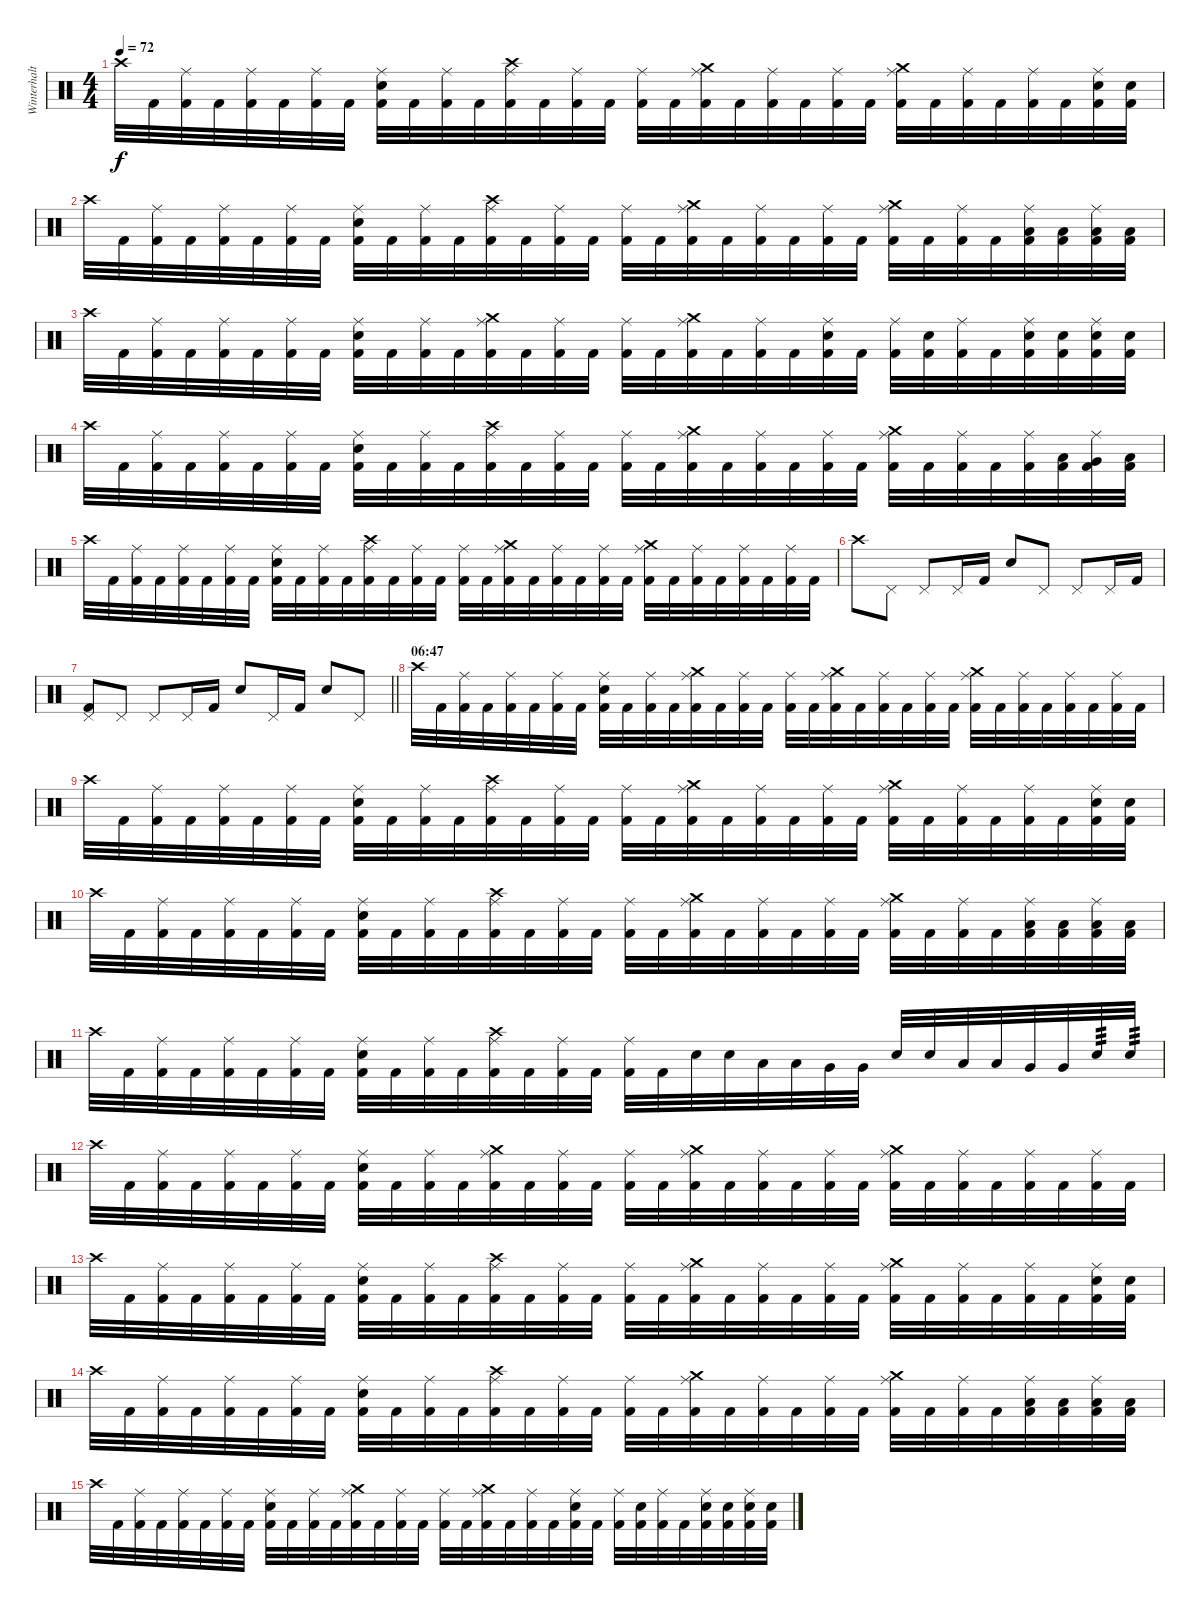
\track ("Winterhalten" "Winterhalt") {instrument percussion}
\staff {score}
\articulation defaults
\ts (4 4)
\tempo 72
\clef neutral
\ks c "Crash high (hit)".32{dy f} "Kick (hit) 2".32
("Ride (middle)" "Kick (hit) 2").32 "Kick (hit) 2".32 ("Ride (middle)" "Kick (hit) 2").32 "Kick (hit) 2".32 ("Ride (middle)" "Kick (hit) 2").32 "Kick (hit) 2".32 ("Ride (middle)" "Electric Snare (hit)" "Kick (hit) 2").32 "Kick (hit) 2".32 ("Ride (middle)" "Kick (hit) 2").32 "Kick (hit) 2".32 ("Crash high (hit)" "Ride (middle)" "Kick (hit) 2").32 "Kick (hit) 2".32 ("Ride (middle)" "Kick (hit) 2").32 "Kick (hit) 2".32 ("Ride (middle)" "Kick (hit) 2").32 "Kick (hit) 2".32 ("Crash medium (hit)" "Ride (middle)" "Kick (hit) 2").32 "Kick (hit) 2".32 ("Ride (middle)" "Kick (hit) 2").32 "Kick (hit) 2".32 ("Ride (middle)" "Kick (hit) 2").32 "Kick (hit) 2".32 ("Crash medium (hit)" "Ride (middle)" "Kick (hit) 2").32 "Kick (hit) 2".32 ("Ride (middle)" "Kick (hit) 2").32 "Kick (hit) 2".32 ("Ride (middle)" "Kick (hit) 2").32 "Kick (hit) 2".32 ("Ride (middle)" "Electric Snare (hit)" "Kick (hit) 2").32 ("Electric Snare (hit)" "Kick (hit) 2").32 |
"Crash high (hit)".32 "Kick (hit) 2".32 ("Ride (middle)" "Kick (hit) 2").32 "Kick (hit) 2".32 ("Ride (middle)" "Kick (hit) 2").32 "Kick (hit) 2".32 ("Ride (middle)" "Kick (hit) 2").32 "Kick (hit) 2".32 ("Ride (middle)" "Electric Snare (hit)" "Kick (hit) 2").32 "Kick (hit) 2".32 ("Ride (middle)" "Kick (hit) 2").32 "Kick (hit) 2".32 ("Crash high (hit)" "Ride (middle)" "Kick (hit) 2").32 "Kick (hit) 2".32 ("Ride (middle)" "Kick (hit) 2").32 "Kick (hit) 2".32 ("Ride (middle)" "Kick (hit) 2").32 "Kick (hit) 2".32 ("Crash medium (hit)" "Ride (middle)" "Kick (hit) 2").32 "Kick (hit) 2".32 ("Ride (middle)" "Kick (hit) 2").32 "Kick (hit) 2".32 ("Ride (middle)" "Kick (hit) 2").32 "Kick (hit) 2".32 ("Crash medium (hit)" "Ride (middle)" "Kick (hit) 2").32 "Kick (hit) 2".32 ("Ride (middle)" "Kick (hit) 2").32 "Kick (hit) 2".32 ("Ride (middle)" "Low Tom (hit)" "Kick (hit) 2").32 ("Low Tom (hit)" "Kick (hit) 2").32 ("Ride (middle)" "Low Tom (hit)" "Kick (hit) 2").32 ("Low Tom (hit)" "Kick (hit) 2").32 |
"Crash high (hit)".32 "Kick (hit) 2".32 ("Ride (middle)" "Kick (hit) 2").32 "Kick (hit) 2".32 ("Ride (middle)" "Kick (hit) 2").32 "Kick (hit) 2".32 ("Ride (middle)" "Kick (hit) 2").32 "Kick (hit) 2".32 ("Ride (middle)" "Electric Snare (hit)" "Kick (hit) 2").32 "Kick (hit) 2".32 ("Ride (middle)" "Kick (hit) 2").32 "Kick (hit) 2".32 ("Crash medium (hit)" "Ride (middle)" "Kick (hit) 2").32 "Kick (hit) 2".32 ("Ride (middle)" "Kick (hit) 2").32 "Kick (hit) 2".32 ("Ride (middle)" "Kick (hit) 2").32 "Kick (hit) 2".32 ("Crash medium (hit)" "Ride (middle)" "Kick (hit) 2").32 "Kick (hit) 2".32 ("Ride (middle)" "Kick (hit) 2").32 "Kick (hit) 2".32 ("Ride (middle)" "Electric Snare (hit)" "Kick (hit) 2").32 "Kick (hit) 2".32 ("Ride (middle)" "Kick (hit) 2").32 ("Electric Snare (hit)" "Kick (hit) 2").32 ("Ride (middle)" "Kick (hit) 2").32 "Kick (hit) 2".32 ("Ride (middle)" "Electric Snare (hit)" "Kick (hit) 2").32 ("Electric Snare (hit)" "Kick (hit) 2").32 ("Ride (middle)" "Electric Snare (hit)" "Kick (hit) 2").32 ("Electric Snare (hit)" "Kick (hit) 2").32 |
"Crash high (hit)".32 "Kick (hit) 2".32 ("Ride (middle)" "Kick (hit) 2").32 "Kick (hit) 2".32 ("Ride (middle)" "Kick (hit) 2").32 "Kick (hit) 2".32 ("Ride (middle)" "Kick (hit) 2").32 "Kick (hit) 2".32 ("Ride (middle)" "Electric Snare (hit)" "Kick (hit) 2").32 "Kick (hit) 2".32 ("Ride (middle)" "Kick (hit) 2").32 "Kick (hit) 2".32 ("Crash high (hit)" "Ride (middle)" "Kick (hit) 2").32 "Kick (hit) 2".32 ("Ride (middle)" "Kick (hit) 2").32 "Kick (hit) 2".32 ("Ride (middle)" "Kick (hit) 2").32 "Kick (hit) 2".32 ("Crash medium (hit)" "Ride (middle)" "Kick (hit) 2").32 "Kick (hit) 2".32 ("Ride (middle)" "Kick (hit) 2").32 "Kick (hit) 2".32 ("Ride (middle)" "Kick (hit) 2").32 "Kick (hit) 2".32 ("Crash medium (hit)" "Ride (middle)" "Kick (hit) 2").32 "Kick (hit) 2".32 ("Ride (middle)" "Kick (hit) 2").32 "Kick (hit) 2".32 ("Ride (middle)" "Kick (hit) 2").32 ("Low Tom (hit)" "Kick (hit) 2").32 ("Ride (middle)" "Very Low Tom (hit)" "Kick (hit) 2").32 ("Low Floor Tom (hit)" "Kick (hit) 2").32 |
"Crash high (hit)".32 "Kick (hit) 2".32 ("Ride (middle)" "Kick (hit) 2").32 "Kick (hit) 2".32 ("Ride (middle)" "Kick (hit) 2").32 "Kick (hit) 2".32 ("Ride (middle)" "Kick (hit) 2").32 "Kick (hit) 2".32 ("Ride (middle)" "Electric Snare (hit)" "Kick (hit) 2").32 "Kick (hit) 2".32 ("Ride (middle)" "Kick (hit) 2").32 "Kick (hit) 2".32 ("Crash high (hit)" "Ride (middle)" "Kick (hit) 2").32 "Kick (hit) 2".32 ("Ride (middle)" "Kick (hit) 2").32 "Kick (hit) 2".32 ("Ride (middle)" "Kick (hit) 2").32 "Kick (hit) 2".32 ("Crash medium (hit)" "Ride (middle)" "Kick (hit) 2").32 "Kick (hit) 2".32 ("Ride (middle)" "Kick (hit) 2").32 "Kick (hit) 2".32 ("Ride (middle)" "Kick (hit) 2").32 "Kick (hit) 2".32 ("Crash medium (hit)" "Ride (middle)" "Kick (hit) 2").32 "Kick (hit) 2".32 ("Ride (middle)" "Kick (hit) 2").32 "Kick (hit) 2".32 ("Ride (middle)" "Kick (hit) 2").32 "Kick (hit) 2".32 ("Ride (middle)" "Kick (hit) 2").32 "Kick (hit) 2".32 |
"Crash high (hit)".8 "Pedal Hi-Hat (hit)".8 "Pedal Hi-Hat (hit)".8 "Pedal Hi-Hat (hit)".16 "Kick (hit) 2".16 "Electric Snare (hit)".8 "Pedal Hi-Hat (hit)".8 "Pedal Hi-Hat (hit)".8 "Pedal Hi-Hat (hit)".16 "Kick (hit) 2".16 |
\barLineRight lightlight
("Pedal Hi-Hat (hit)" "Kick (hit) 2").8 "Pedal Hi-Hat (hit)".8 "Pedal Hi-Hat (hit)".8 "Pedal Hi-Hat (hit)".16 "Kick (hit) 2".16 "Electric Snare (hit)".8 "Pedal Hi-Hat (hit)".16 "Kick (hit) 2".16 "Electric Snare (hit)".8 "Pedal Hi-Hat (hit)".8 |
\section ("" "06:47")
"Crash high (hit)".32 "Kick (hit) 2".32 ("Ride (middle)" "Kick (hit) 2").32 "Kick (hit) 2".32 ("Ride (middle)" "Kick (hit) 2").32 "Kick (hit) 2".32 ("Ride (middle)" "Kick (hit) 2").32 "Kick (hit) 2".32 ("Ride (middle)" "Electric Snare (hit)" "Kick (hit) 2").32 "Kick (hit) 2".32 ("Ride (middle)" "Kick (hit) 2").32 "Kick (hit) 2".32 ("Crash medium (hit)" "Ride (middle)" "Kick (hit) 2").32 "Kick (hit) 2".32 ("Ride (middle)" "Kick (hit) 2").32 "Kick (hit) 2".32 ("Ride (middle)" "Kick (hit) 2").32 "Kick (hit) 2".32 ("Crash medium (hit)" "Ride (middle)" "Kick (hit) 2").32 "Kick (hit) 2".32 ("Ride (middle)" "Kick (hit) 2").32 "Kick (hit) 2".32 ("Ride (middle)" "Kick (hit) 2").32 "Kick (hit) 2".32 ("Crash medium (hit)" "Ride (middle)" "Kick (hit) 2").32 "Kick (hit) 2".32 ("Ride (middle)" "Kick (hit) 2").32 "Kick (hit) 2".32 ("Ride (middle)" "Kick (hit) 2").32 "Kick (hit) 2".32 ("Ride (middle)" "Kick (hit) 2").32 "Kick (hit) 2".32 |
"Crash high (hit)".32 "Kick (hit) 2".32 ("Ride (middle)" "Kick (hit) 2").32 "Kick (hit) 2".32 ("Ride (middle)" "Kick (hit) 2").32 "Kick (hit) 2".32 ("Ride (middle)" "Kick (hit) 2").32 "Kick (hit) 2".32 ("Ride (middle)" "Electric Snare (hit)" "Kick (hit) 2").32 "Kick (hit) 2".32 ("Ride (middle)" "Kick (hit) 2").32 "Kick (hit) 2".32 ("Crash high (hit)" "Ride (middle)" "Kick (hit) 2").32 "Kick (hit) 2".32 ("Ride (middle)" "Kick (hit) 2").32 "Kick (hit) 2".32 ("Ride (middle)" "Kick (hit) 2").32 "Kick (hit) 2".32 ("Crash medium (hit)" "Ride (middle)" "Kick (hit) 2").32 "Kick (hit) 2".32 ("Ride (middle)" "Kick (hit) 2").32 "Kick (hit) 2".32 ("Ride (middle)" "Kick (hit) 2").32 "Kick (hit) 2".32 ("Crash medium (hit)" "Ride (middle)" "Kick (hit) 2").32 "Kick (hit) 2".32 ("Ride (middle)" "Kick (hit) 2").32 "Kick (hit) 2".32 ("Ride (middle)" "Kick (hit) 2").32 "Kick (hit) 2".32 ("Ride (middle)" "Electric Snare (hit)" "Kick (hit) 2").32 ("Electric Snare (hit)" "Kick (hit) 2").32 |
"Crash high (hit)".32 "Kick (hit) 2".32 ("Ride (middle)" "Kick (hit) 2").32 "Kick (hit) 2".32 ("Ride (middle)" "Kick (hit) 2").32 "Kick (hit) 2".32 ("Ride (middle)" "Kick (hit) 2").32 "Kick (hit) 2".32 ("Ride (middle)" "Electric Snare (hit)" "Kick (hit) 2").32 "Kick (hit) 2".32 ("Ride (middle)" "Kick (hit) 2").32 "Kick (hit) 2".32 ("Crash high (hit)" "Ride (middle)" "Kick (hit) 2").32 "Kick (hit) 2".32 ("Ride (middle)" "Kick (hit) 2").32 "Kick (hit) 2".32 ("Ride (middle)" "Kick (hit) 2").32 "Kick (hit) 2".32 ("Crash medium (hit)" "Ride (middle)" "Kick (hit) 2").32 "Kick (hit) 2".32 ("Ride (middle)" "Kick (hit) 2").32 "Kick (hit) 2".32 ("Ride (middle)" "Kick (hit) 2").32 "Kick (hit) 2".32 ("Crash medium (hit)" "Ride (middle)" "Kick (hit) 2").32 "Kick (hit) 2".32 ("Ride (middle)" "Kick (hit) 2").32 "Kick (hit) 2".32 ("Ride (middle)" "Low Tom (hit)" "Kick (hit) 2").32 ("Low Tom (hit)" "Kick (hit) 2").32 ("Ride (middle)" "Low Tom (hit)" "Kick (hit) 2").32 ("Low Tom (hit)" "Kick (hit) 2").32 |
"Crash high (hit)".32 "Kick (hit) 2".32 ("Ride (middle)" "Kick (hit) 2").32 "Kick (hit) 2".32 ("Ride (middle)" "Kick (hit) 2").32 "Kick (hit) 2".32 ("Ride (middle)" "Kick (hit) 2").32 "Kick (hit) 2".32 ("Ride (middle)" "Electric Snare (hit)" "Kick (hit) 2").32 "Kick (hit) 2".32 ("Ride (middle)" "Kick (hit) 2").32 "Kick (hit) 2".32 ("Crash high (hit)" "Ride (middle)" "Kick (hit) 2").32 "Kick (hit) 2".32 ("Ride (middle)" "Kick (hit) 2").32 "Kick (hit) 2".32 ("Ride (middle)" "Kick (hit) 2").32 "Kick (hit) 2".32 "Electric Snare (hit)".32 "Electric Snare (hit)".32 "Low Tom (hit)".32 "Low Tom (hit)".32 "Very Low Tom (hit)".32 "Very Low Tom (hit)".32 "Electric Snare (hit)".32 "Electric Snare (hit)".32 "Low Tom (hit)".32 "Low Tom (hit)".32 "Very Low Tom (hit)".32 "Very Low Tom (hit)".32 "Electric Snare (hit)".32{tp 3} "Electric Snare (hit)".32{tp 3} |
"Crash high (hit)".32 "Kick (hit) 2".32 ("Ride (middle)" "Kick (hit) 2").32 "Kick (hit) 2".32 ("Ride (middle)" "Kick (hit) 2").32 "Kick (hit) 2".32 ("Ride (middle)" "Kick (hit) 2").32 "Kick (hit) 2".32 ("Ride (middle)" "Electric Snare (hit)" "Kick (hit) 2").32 "Kick (hit) 2".32 ("Ride (middle)" "Kick (hit) 2").32 "Kick (hit) 2".32 ("Crash medium (hit)" "Ride (middle)" "Kick (hit) 2").32 "Kick (hit) 2".32 ("Ride (middle)" "Kick (hit) 2").32 "Kick (hit) 2".32 ("Ride (middle)" "Kick (hit) 2").32 "Kick (hit) 2".32 ("Crash medium (hit)" "Ride (middle)" "Kick (hit) 2").32 "Kick (hit) 2".32 ("Ride (middle)" "Kick (hit) 2").32 "Kick (hit) 2".32 ("Ride (middle)" "Kick (hit) 2").32 "Kick (hit) 2".32 ("Crash medium (hit)" "Ride (middle)" "Kick (hit) 2").32 "Kick (hit) 2".32 ("Ride (middle)" "Kick (hit) 2").32 "Kick (hit) 2".32 ("Ride (middle)" "Kick (hit) 2").32 "Kick (hit) 2".32 ("Ride (middle)" "Kick (hit) 2").32 "Kick (hit) 2".32 |
"Crash high (hit)".32 "Kick (hit) 2".32 ("Ride (middle)" "Kick (hit) 2").32 "Kick (hit) 2".32 ("Ride (middle)" "Kick (hit) 2").32 "Kick (hit) 2".32 ("Ride (middle)" "Kick (hit) 2").32 "Kick (hit) 2".32 ("Ride (middle)" "Electric Snare (hit)" "Kick (hit) 2").32 "Kick (hit) 2".32 ("Ride (middle)" "Kick (hit) 2").32 "Kick (hit) 2".32 ("Crash high (hit)" "Ride (middle)" "Kick (hit) 2").32 "Kick (hit) 2".32 ("Ride (middle)" "Kick (hit) 2").32 "Kick (hit) 2".32 ("Ride (middle)" "Kick (hit) 2").32 "Kick (hit) 2".32 ("Crash medium (hit)" "Ride (middle)" "Kick (hit) 2").32 "Kick (hit) 2".32 ("Ride (middle)" "Kick (hit) 2").32 "Kick (hit) 2".32 ("Ride (middle)" "Kick (hit) 2").32 "Kick (hit) 2".32 ("Crash medium (hit)" "Ride (middle)" "Kick (hit) 2").32 "Kick (hit) 2".32 ("Ride (middle)" "Kick (hit) 2").32 "Kick (hit) 2".32 ("Ride (middle)" "Kick (hit) 2").32 "Kick (hit) 2".32 ("Ride (middle)" "Electric Snare (hit)" "Kick (hit) 2").32 ("Electric Snare (hit)" "Kick (hit) 2").32 |
"Crash high (hit)".32 "Kick (hit) 2".32 ("Ride (middle)" "Kick (hit) 2").32 "Kick (hit) 2".32 ("Ride (middle)" "Kick (hit) 2").32 "Kick (hit) 2".32 ("Ride (middle)" "Kick (hit) 2").32 "Kick (hit) 2".32 ("Ride (middle)" "Electric Snare (hit)" "Kick (hit) 2").32 "Kick (hit) 2".32 ("Ride (middle)" "Kick (hit) 2").32 "Kick (hit) 2".32 ("Crash high (hit)" "Ride (middle)" "Kick (hit) 2").32 "Kick (hit) 2".32 ("Ride (middle)" "Kick (hit) 2").32 "Kick (hit) 2".32 ("Ride (middle)" "Kick (hit) 2").32 "Kick (hit) 2".32 ("Crash medium (hit)" "Ride (middle)" "Kick (hit) 2").32 "Kick (hit) 2".32 ("Ride (middle)" "Kick (hit) 2").32 "Kick (hit) 2".32 ("Ride (middle)" "Kick (hit) 2").32 "Kick (hit) 2".32 ("Crash medium (hit)" "Ride (middle)" "Kick (hit) 2").32 "Kick (hit) 2".32 ("Ride (middle)" "Kick (hit) 2").32 "Kick (hit) 2".32 ("Ride (middle)" "Low Tom (hit)" "Kick (hit) 2").32 ("Low Tom (hit)" "Kick (hit) 2").32 ("Ride (middle)" "Low Tom (hit)" "Kick (hit) 2").32 ("Low Tom (hit)" "Kick (hit) 2").32 |
"Crash high (hit)".32 "Kick (hit) 2".32 ("Ride (middle)" "Kick (hit) 2").32 "Kick (hit) 2".32 ("Ride (middle)" "Kick (hit) 2").32 "Kick (hit) 2".32 ("Ride (middle)" "Kick (hit) 2").32 "Kick (hit) 2".32 ("Ride (middle)" "Electric Snare (hit)" "Kick (hit) 2").32 "Kick (hit) 2".32 ("Ride (middle)" "Kick (hit) 2").32 "Kick (hit) 2".32 ("Crash medium (hit)" "Ride (middle)" "Kick (hit) 2").32 "Kick (hit) 2".32 ("Ride (middle)" "Kick (hit) 2").32 "Kick (hit) 2".32 ("Ride (middle)" "Kick (hit) 2").32 "Kick (hit) 2".32 ("Crash medium (hit)" "Ride (middle)" "Kick (hit) 2").32 "Kick (hit) 2".32 ("Ride (middle)" "Kick (hit) 2").32 "Kick (hit) 2".32 ("Ride (middle)" "Electric Snare (hit)" "Kick (hit) 2").32 "Kick (hit) 2".32 ("Ride (middle)" "Kick (hit) 2").32 ("Electric Snare (hit)" "Kick (hit) 2").32 ("Ride (middle)" "Kick (hit) 2").32 "Kick (hit) 2".32 ("Ride (middle)" "Electric Snare (hit)" "Kick (hit) 2").32 ("Electric Snare (hit)" "Kick (hit) 2").32 ("Ride (middle)" "Electric Snare (hit)" "Kick (hit) 2").32 ("Electric Snare (hit)" "Kick (hit) 2").32
